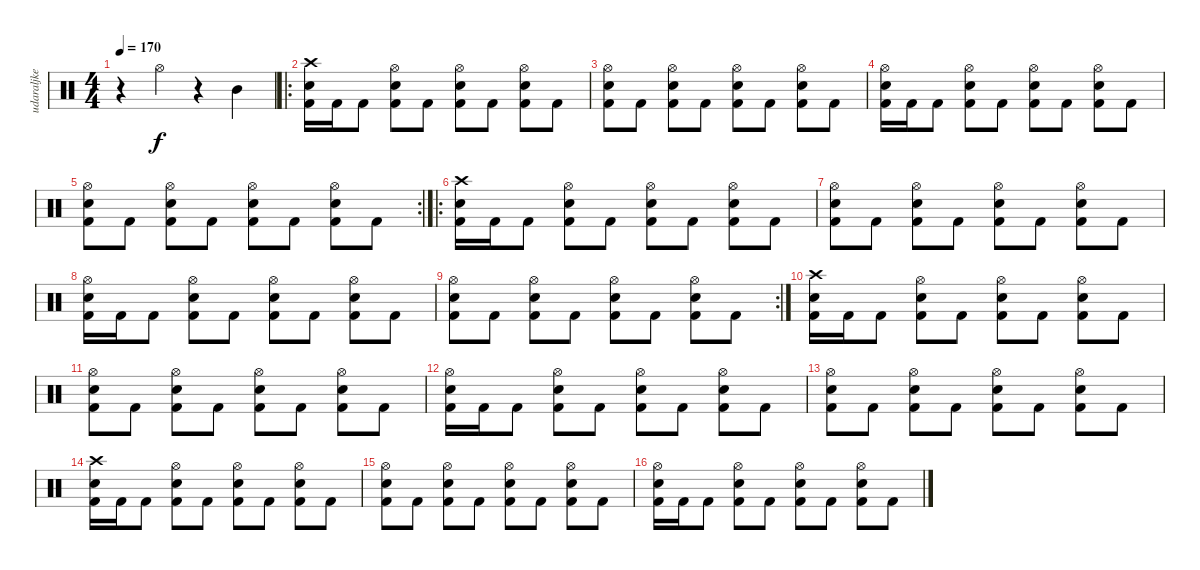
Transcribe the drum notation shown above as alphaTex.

\track ("udaraljke" "udaraljke") {instrument percussion}
\staff {score}
\articulation defaults
\ts (4 4)
\tempo 170
\clef neutral
\ks c
r.4{dy f} "Hi-Hat (open)".4 r.4 "Mid Tom (hit)".4 |
\ro
("Crash high (hit)" "Snare (hit) 2" "Kick (hit) 2").16 "Kick (hit) 2".16 "Kick (hit) 2".8 ("Hi-Hat (open)" "Snare (hit) 2" "Kick (hit) 2").8 "Kick (hit) 2".8 ("Hi-Hat (open)" "Snare (hit) 2" "Kick (hit) 2").8 "Kick (hit) 2".8 ("Hi-Hat (open)" "Snare (hit) 2" "Kick (hit) 2").8 "Kick (hit) 2".8 |
("Hi-Hat (open)" "Snare (hit) 2" "Kick (hit) 2").8 "Kick (hit) 2".8 ("Hi-Hat (open)" "Snare (hit) 2" "Kick (hit) 2").8 "Kick (hit) 2".8 ("Hi-Hat (open)" "Snare (hit) 2" "Kick (hit) 2").8 "Kick (hit) 2".8 ("Hi-Hat (open)" "Snare (hit) 2" "Kick (hit) 2").8 "Kick (hit) 2".8 |
("Hi-Hat (open)" "Snare (hit) 2" "Kick (hit) 2").16 "Kick (hit) 2".16 "Kick (hit) 2".8 ("Hi-Hat (open)" "Snare (hit) 2" "Kick (hit) 2").8 "Kick (hit) 2".8 ("Hi-Hat (open)" "Snare (hit) 2" "Kick (hit) 2").8 "Kick (hit) 2".8 ("Hi-Hat (open)" "Snare (hit) 2" "Kick (hit) 2").8 "Kick (hit) 2".8 |
\rc 2
("Hi-Hat (open)" "Snare (hit) 2" "Kick (hit) 2").8 "Kick (hit) 2".8 ("Hi-Hat (open)" "Snare (hit) 2" "Kick (hit) 2").8 "Kick (hit) 2".8 ("Hi-Hat (open)" "Snare (hit) 2" "Kick (hit) 2").8 "Kick (hit) 2".8 ("Hi-Hat (open)" "Snare (hit) 2" "Kick (hit) 2").8 "Kick (hit) 2".8 |
\ro
("Crash high (hit)" "Snare (hit) 2" "Kick (hit) 2").16 "Kick (hit) 2".16 "Kick (hit) 2".8 ("Hi-Hat (open)" "Snare (hit) 2" "Kick (hit) 2").8 "Kick (hit) 2".8 ("Hi-Hat (open)" "Snare (hit) 2" "Kick (hit) 2").8 "Kick (hit) 2".8 ("Hi-Hat (open)" "Snare (hit) 2" "Kick (hit) 2").8 "Kick (hit) 2".8 |
("Hi-Hat (open)" "Snare (hit) 2" "Kick (hit) 2").8 "Kick (hit) 2".8 ("Hi-Hat (open)" "Snare (hit) 2" "Kick (hit) 2").8 "Kick (hit) 2".8 ("Hi-Hat (open)" "Snare (hit) 2" "Kick (hit) 2").8 "Kick (hit) 2".8 ("Hi-Hat (open)" "Snare (hit) 2" "Kick (hit) 2").8 "Kick (hit) 2".8 |
("Hi-Hat (open)" "Snare (hit) 2" "Kick (hit) 2").16 "Kick (hit) 2".16 "Kick (hit) 2".8 ("Hi-Hat (open)" "Snare (hit) 2" "Kick (hit) 2").8 "Kick (hit) 2".8 ("Hi-Hat (open)" "Snare (hit) 2" "Kick (hit) 2").8 "Kick (hit) 2".8 ("Hi-Hat (open)" "Snare (hit) 2" "Kick (hit) 2").8 "Kick (hit) 2".8 |
\rc 2
("Hi-Hat (open)" "Snare (hit) 2" "Kick (hit) 2").8 "Kick (hit) 2".8 ("Hi-Hat (open)" "Snare (hit) 2" "Kick (hit) 2").8 "Kick (hit) 2".8 ("Hi-Hat (open)" "Snare (hit) 2" "Kick (hit) 2").8 "Kick (hit) 2".8 ("Hi-Hat (open)" "Snare (hit) 2" "Kick (hit) 2").8 "Kick (hit) 2".8 |
("Crash high (hit)" "Snare (hit) 2" "Kick (hit) 2").16 "Kick (hit) 2".16 "Kick (hit) 2".8 ("Hi-Hat (open)" "Snare (hit) 2" "Kick (hit) 2").8 "Kick (hit) 2".8 ("Hi-Hat (open)" "Snare (hit) 2" "Kick (hit) 2").8 "Kick (hit) 2".8 ("Hi-Hat (open)" "Snare (hit) 2" "Kick (hit) 2").8 "Kick (hit) 2".8 |
("Hi-Hat (open)" "Snare (hit) 2" "Kick (hit) 2").8 "Kick (hit) 2".8 ("Hi-Hat (open)" "Snare (hit) 2" "Kick (hit) 2").8 "Kick (hit) 2".8 ("Hi-Hat (open)" "Snare (hit) 2" "Kick (hit) 2").8 "Kick (hit) 2".8 ("Hi-Hat (open)" "Snare (hit) 2" "Kick (hit) 2").8 "Kick (hit) 2".8 |
("Hi-Hat (open)" "Snare (hit) 2" "Kick (hit) 2").16 "Kick (hit) 2".16 "Kick (hit) 2".8 ("Hi-Hat (open)" "Snare (hit) 2" "Kick (hit) 2").8 "Kick (hit) 2".8 ("Hi-Hat (open)" "Snare (hit) 2" "Kick (hit) 2").8 "Kick (hit) 2".8 ("Hi-Hat (open)" "Snare (hit) 2" "Kick (hit) 2").8 "Kick (hit) 2".8 |
("Hi-Hat (open)" "Snare (hit) 2" "Kick (hit) 2").8 "Kick (hit) 2".8 ("Hi-Hat (open)" "Snare (hit) 2" "Kick (hit) 2").8 "Kick (hit) 2".8 ("Hi-Hat (open)" "Snare (hit) 2" "Kick (hit) 2").8 "Kick (hit) 2".8 ("Hi-Hat (open)" "Snare (hit) 2" "Kick (hit) 2").8 "Kick (hit) 2".8 |
("Crash high (hit)" "Snare (hit) 2" "Kick (hit) 2").16 "Kick (hit) 2".16 "Kick (hit) 2".8 ("Hi-Hat (open)" "Snare (hit) 2" "Kick (hit) 2").8 "Kick (hit) 2".8 ("Hi-Hat (open)" "Snare (hit) 2" "Kick (hit) 2").8 "Kick (hit) 2".8 ("Hi-Hat (open)" "Snare (hit) 2" "Kick (hit) 2").8 "Kick (hit) 2".8 |
("Hi-Hat (open)" "Snare (hit) 2" "Kick (hit) 2").8 "Kick (hit) 2".8 ("Hi-Hat (open)" "Snare (hit) 2" "Kick (hit) 2").8 "Kick (hit) 2".8 ("Hi-Hat (open)" "Snare (hit) 2" "Kick (hit) 2").8 "Kick (hit) 2".8 ("Hi-Hat (open)" "Snare (hit) 2" "Kick (hit) 2").8 "Kick (hit) 2".8 |
("Hi-Hat (open)" "Snare (hit) 2" "Kick (hit) 2").16 "Kick (hit) 2".16 "Kick (hit) 2".8 ("Hi-Hat (open)" "Snare (hit) 2" "Kick (hit) 2").8 "Kick (hit) 2".8 ("Hi-Hat (open)" "Snare (hit) 2" "Kick (hit) 2").8 "Kick (hit) 2".8 ("Hi-Hat (open)" "Snare (hit) 2" "Kick (hit) 2").8 "Kick (hit) 2".8
